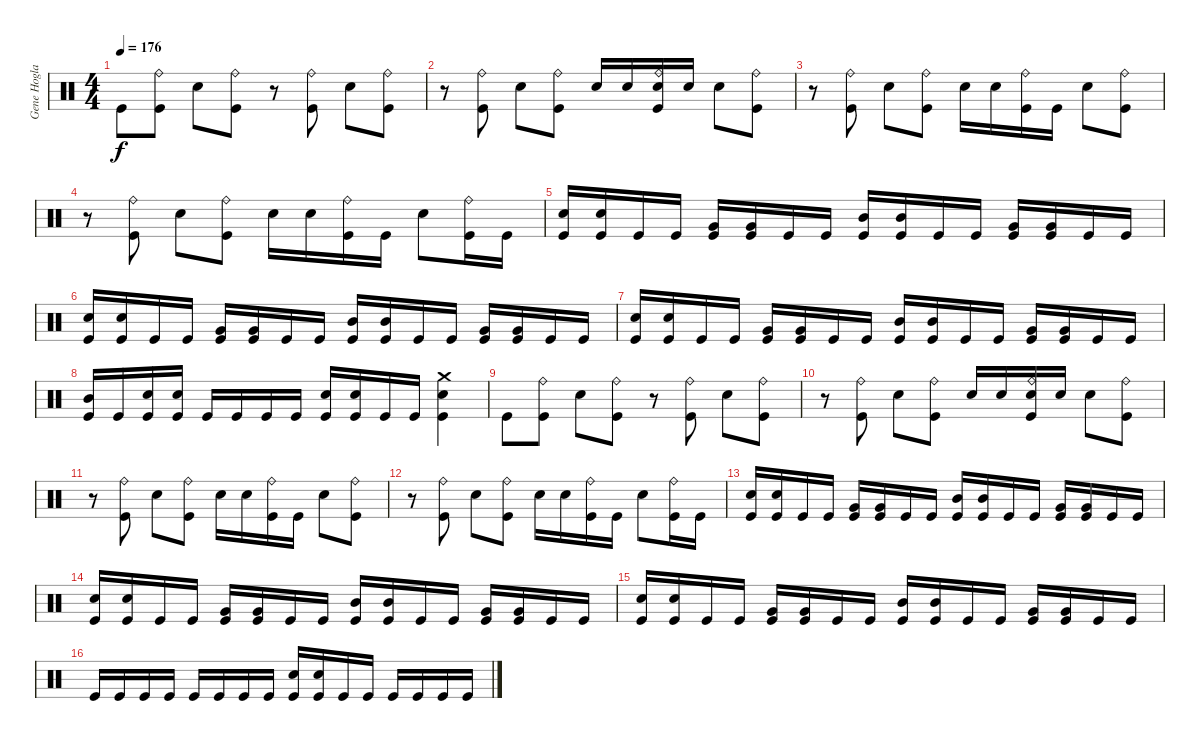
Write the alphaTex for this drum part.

\track ("Gene Hoglan " "Gene Hogla") {instrument percussion}
\staff {score}
\articulation defaults
\ts (4 4)
\tempo 176
\clef neutral
\ks c "Kick (hit)".8{dy f}
("Ride (bell)" "Kick (hit)").8 "Snare (hit) 2".8 ("Ride (bell)" "Kick (hit)").8 r.8 ("Ride (bell)" "Kick (hit)").8 "Snare (hit) 2".8 ("Ride (bell)" "Kick (hit)").8 |
r.8 ("Ride (bell)" "Kick (hit)").8 "Snare (hit) 2".8 ("Ride (bell)" "Kick (hit)").8 "Snare (hit) 2".16 "Snare (hit) 2".16 ("Ride (bell)" "Snare (hit) 2" "Kick (hit)").16 "Snare (hit) 2".16 "Snare (hit) 2".8 ("Ride (bell)" "Kick (hit)").8 |
r.8 ("Ride (bell)" "Kick (hit)").8 "Snare (hit) 2".8 ("Ride (bell)" "Kick (hit)").8 "Snare (hit) 2".16 "Snare (hit) 2".16 ("Ride (bell)" "Kick (hit)").16 "Kick (hit)".16 "Snare (hit) 2".8 ("Ride (bell)" "Kick (hit)").8 |
r.8 ("Ride (bell)" "Kick (hit)").8 "Snare (hit) 2".8 ("Ride (bell)" "Kick (hit)").8 "Snare (hit) 2".16 "Snare (hit) 2".16 ("Ride (bell)" "Kick (hit)").16 "Kick (hit)".16 "Snare (hit) 2".8 ("Ride (bell)" "Kick (hit)").16 "Kick (hit)".16 |
("Snare (hit) 2" "Kick (hit)").16 ("Snare (hit) 2" "Kick (hit)").16 "Kick (hit)".16 "Kick (hit)".16 ("Very Low Tom (hit)" "Kick (hit)").16 ("Very Low Tom (hit)" "Kick (hit)").16 "Kick (hit)".16 "Kick (hit)".16 ("Mid Tom (hit)" "Kick (hit)").16 ("Mid Tom (hit)" "Kick (hit)").16 "Kick (hit)".16 "Kick (hit)".16 ("Very Low Tom (hit)" "Kick (hit)").16 ("Very Low Tom (hit)" "Kick (hit)").16 "Kick (hit)".16 "Kick (hit)".16 |
("Snare (hit) 2" "Kick (hit)").16 ("Snare (hit) 2" "Kick (hit)").16 "Kick (hit)".16 "Kick (hit)".16 ("Very Low Tom (hit)" "Kick (hit)").16 ("Very Low Tom (hit)" "Kick (hit)").16 "Kick (hit)".16 "Kick (hit)".16 ("Mid Tom (hit)" "Kick (hit)").16 ("Mid Tom (hit)" "Kick (hit)").16 "Kick (hit)".16 "Kick (hit)".16 ("Very Low Tom (hit)" "Kick (hit)").16 ("Very Low Tom (hit)" "Kick (hit)").16 "Kick (hit)".16 "Kick (hit)".16 |
("Snare (hit) 2" "Kick (hit)").16 ("Snare (hit) 2" "Kick (hit)").16 "Kick (hit)".16 "Kick (hit)".16 ("Very Low Tom (hit)" "Kick (hit)").16 ("Very Low Tom (hit)" "Kick (hit)").16 "Kick (hit)".16 "Kick (hit)".16 ("Mid Tom (hit)" "Kick (hit)").16 ("Mid Tom (hit)" "Kick (hit)").16 "Kick (hit)".16 "Kick (hit)".16 ("Very Low Tom (hit)" "Kick (hit)").16 ("Very Low Tom (hit)" "Kick (hit)").16 "Kick (hit)".16 "Kick (hit)".16 |
("Mid Tom (hit)" "Kick (hit)").16 "Kick (hit)".16 ("Snare (hit) 2" "Kick (hit)").16 ("Snare (hit) 2" "Kick (hit)").16 "Kick (hit)".16 "Kick (hit)".16 "Kick (hit)".16 "Kick (hit)".16 ("Snare (hit) 2" "Kick (hit)").16 ("Snare (hit) 2" "Kick (hit)").16 "Kick (hit)".16 "Kick (hit)".16 ("Crash medium (hit)" "Snare (hit) 2" "Kick (hit)").4 |
"Kick (hit)".8 ("Ride (bell)" "Kick (hit)").8 "Snare (hit) 2".8 ("Ride (bell)" "Kick (hit)").8 r.8 ("Ride (bell)" "Kick (hit)").8 "Snare (hit) 2".8 ("Ride (bell)" "Kick (hit)").8 |
r.8 ("Ride (bell)" "Kick (hit)").8 "Snare (hit) 2".8 ("Ride (bell)" "Kick (hit)").8 "Snare (hit) 2".16 "Snare (hit) 2".16 ("Ride (bell)" "Snare (hit) 2" "Kick (hit)").16 "Snare (hit) 2".16 "Snare (hit) 2".8 ("Ride (bell)" "Kick (hit)").8 |
r.8 ("Ride (bell)" "Kick (hit)").8 "Snare (hit) 2".8 ("Ride (bell)" "Kick (hit)").8 "Snare (hit) 2".16 "Snare (hit) 2".16 ("Ride (bell)" "Kick (hit)").16 "Kick (hit)".16 "Snare (hit) 2".8 ("Ride (bell)" "Kick (hit)").8 |
r.8 ("Ride (bell)" "Kick (hit)").8 "Snare (hit) 2".8 ("Ride (bell)" "Kick (hit)").8 "Snare (hit) 2".16 "Snare (hit) 2".16 ("Ride (bell)" "Kick (hit)").16 "Kick (hit)".16 "Snare (hit) 2".8 ("Ride (bell)" "Kick (hit)").16 "Kick (hit)".16 |
("Snare (hit) 2" "Kick (hit)").16 ("Snare (hit) 2" "Kick (hit)").16 "Kick (hit)".16 "Kick (hit)".16 ("Very Low Tom (hit)" "Kick (hit)").16 ("Very Low Tom (hit)" "Kick (hit)").16 "Kick (hit)".16 "Kick (hit)".16 ("Mid Tom (hit)" "Kick (hit)").16 ("Mid Tom (hit)" "Kick (hit)").16 "Kick (hit)".16 "Kick (hit)".16 ("Very Low Tom (hit)" "Kick (hit)").16 ("Very Low Tom (hit)" "Kick (hit)").16 "Kick (hit)".16 "Kick (hit)".16 |
("Snare (hit) 2" "Kick (hit)").16 ("Snare (hit) 2" "Kick (hit)").16 "Kick (hit)".16 "Kick (hit)".16 ("Very Low Tom (hit)" "Kick (hit)").16 ("Very Low Tom (hit)" "Kick (hit)").16 "Kick (hit)".16 "Kick (hit)".16 ("Mid Tom (hit)" "Kick (hit)").16 ("Mid Tom (hit)" "Kick (hit)").16 "Kick (hit)".16 "Kick (hit)".16 ("Very Low Tom (hit)" "Kick (hit)").16 ("Very Low Tom (hit)" "Kick (hit)").16 "Kick (hit)".16 "Kick (hit)".16 |
("Snare (hit) 2" "Kick (hit)").16 ("Snare (hit) 2" "Kick (hit)").16 "Kick (hit)".16 "Kick (hit)".16 ("Very Low Tom (hit)" "Kick (hit)").16 ("Very Low Tom (hit)" "Kick (hit)").16 "Kick (hit)".16 "Kick (hit)".16 ("Mid Tom (hit)" "Kick (hit)").16 ("Mid Tom (hit)" "Kick (hit)").16 "Kick (hit)".16 "Kick (hit)".16 ("Very Low Tom (hit)" "Kick (hit)").16 ("Very Low Tom (hit)" "Kick (hit)").16 "Kick (hit)".16 "Kick (hit)".16 |
"Kick (hit)".16 "Kick (hit)".16 "Kick (hit)".16 "Kick (hit)".16 "Kick (hit)".16 "Kick (hit)".16 "Kick (hit)".16 "Kick (hit)".16 ("Snare (hit) 2" "Kick (hit)").16 ("Snare (hit) 2" "Kick (hit)").16 "Kick (hit)".16 "Kick (hit)".16 "Kick (hit)".16 "Kick (hit)".16 "Kick (hit)".16 "Kick (hit)".16
